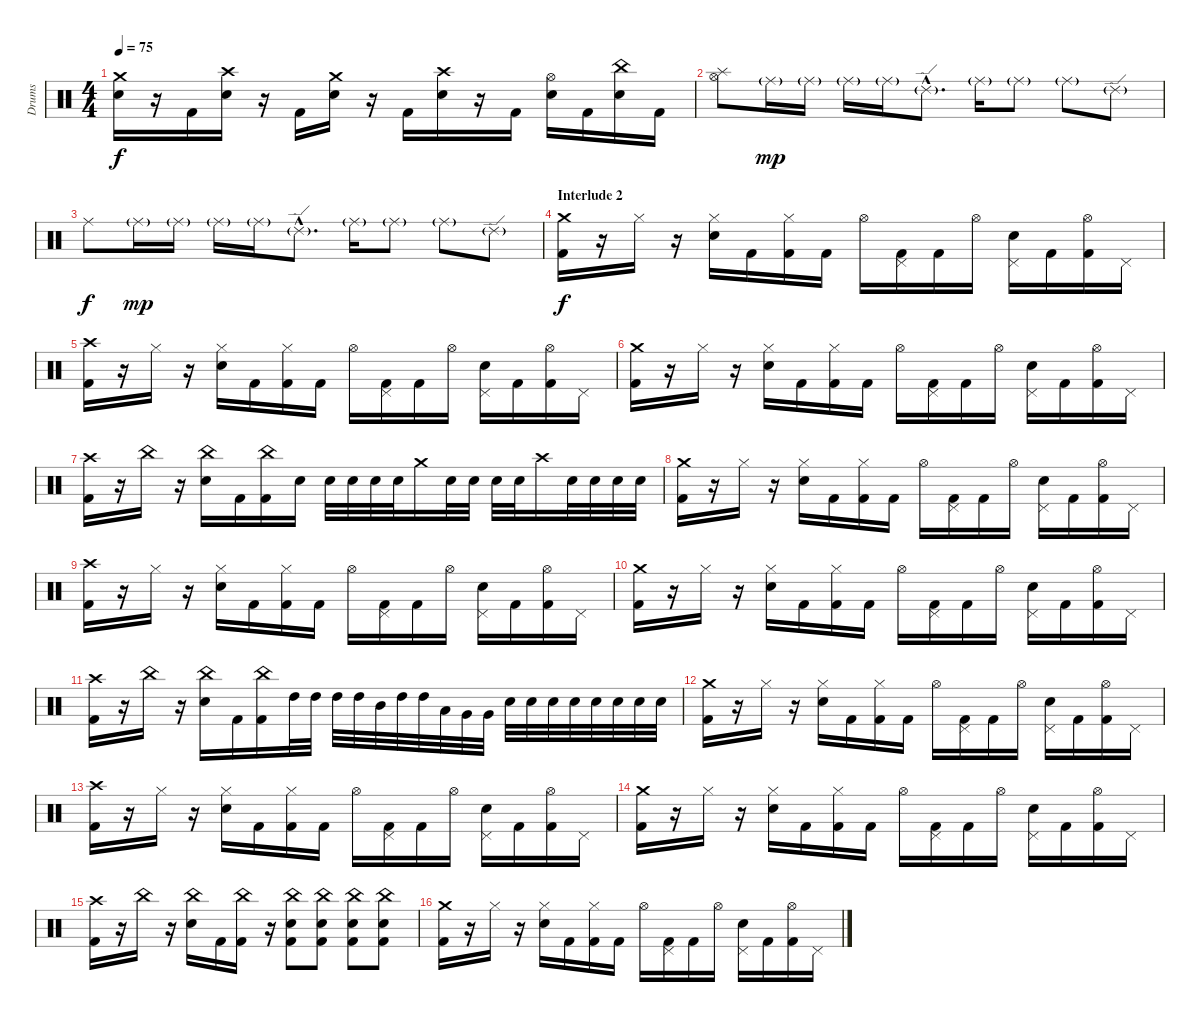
\track ("Drums" "Drums") {instrument percussion}
\staff {score}
\articulation defaults
\ts (4 4)
\tempo 75
\clef neutral
\ks c
("Crash medium (hit)" "Snare (hit) 2").16{dy f} r.16 "Kick (hit) 2".16 ("Crash high (hit)" "Snare (hit) 2").16 r.16 "Kick (hit) 2".16 ("Crash medium (hit)" "Snare (hit) 2").16 r.16 "Kick (hit) 2".16 ("Crash high (hit)" "Snare (hit) 2").16 r.16 "Kick (hit) 2".16 ("Hi-Hat (open)" "Snare (hit) 2").16 "Kick (hit) 2".16 ("China (hit)" "Snare (hit) 2").16 "Kick (hit) 2".16 |
("Splash (hit)" "Hi-Hat (open)").8 "Ride (middle)"{g}.16{dy mp} "Ride (middle)"{g}.16 "Ride (middle)"{g}.16 "Ride (middle)"{g}.16 "Ride (edge) 2"{g hac}.8{d} "Ride (middle)"{g}.16 "Ride (middle)"{g}.8 "Ride (middle)"{g}.8 "Ride (edge) 2"{g}.8 |
"Ride (middle)".8{dy f} "Ride (middle)"{g}.16{dy mp} "Ride (middle)"{g}.16 "Ride (middle)"{g}.16 "Ride (middle)"{g}.16 "Ride (edge) 2"{g hac}.8{d} "Ride (middle)"{g}.16 "Ride (middle)"{g}.8 "Ride (middle)"{g}.8 "Ride (edge) 2"{g}.8 |
\section ("" "Interlude 2")
("Crash medium (hit)" "Kick (hit) 2").16{dy f} r.16 "Hi-Hat (closed)".16 r.16 ("Hi-Hat (closed)" "Snare (hit) 2").16 "Kick (hit) 2".16 ("Hi-Hat (closed)" "Kick (hit) 2").16 "Kick (hit) 2".16 "Hi-Hat (open)".16 ("Pedal Hi-Hat (hit)" "Kick (hit) 2").16 "Kick (hit) 2".16 "Hi-Hat (open)".16 ("Pedal Hi-Hat (hit)" "Snare (hit) 2").16 "Kick (hit) 2".16 ("Hi-Hat (open)" "Kick (hit) 2").16 "Pedal Hi-Hat (hit)".16 |
("Crash high (hit)" "Kick (hit) 2").16 r.16 "Hi-Hat (closed)".16 r.16 ("Hi-Hat (closed)" "Snare (hit) 2").16 "Kick (hit) 2".16 ("Hi-Hat (closed)" "Kick (hit) 2").16 "Kick (hit) 2".16 "Hi-Hat (open)".16 ("Pedal Hi-Hat (hit)" "Kick (hit) 2").16 "Kick (hit) 2".16 "Hi-Hat (open)".16 ("Pedal Hi-Hat (hit)" "Snare (hit) 2").16 "Kick (hit) 2".16 ("Hi-Hat (open)" "Kick (hit) 2").16 "Pedal Hi-Hat (hit)".16 |
("Crash medium (hit)" "Kick (hit) 2").16 r.16 "Hi-Hat (closed)".16 r.16 ("Hi-Hat (closed)" "Snare (hit) 2").16 "Kick (hit) 2".16 ("Hi-Hat (closed)" "Kick (hit) 2").16 "Kick (hit) 2".16 "Hi-Hat (open)".16 ("Pedal Hi-Hat (hit)" "Kick (hit) 2").16 "Kick (hit) 2".16 "Hi-Hat (open)".16 ("Pedal Hi-Hat (hit)" "Snare (hit) 2").16 "Kick (hit) 2".16 ("Hi-Hat (open)" "Kick (hit) 2").16 "Pedal Hi-Hat (hit)".16 |
("Crash high (hit)" "Kick (hit) 2").16 r.16 "China (hit)".16 r.16 ("China (hit)" "Snare (hit) 2").16 "Kick (hit) 2".16 ("China (hit)" "Kick (hit) 2").16 "Snare (hit) 2".16 "Snare (hit) 2".32 "Snare (hit) 2".32 "Snare (hit) 2".32 "Snare (hit) 2".32 "Crash medium (hit)".16 "Snare (hit) 2".32 "Snare (hit) 2".32 "Snare (hit) 2".32 "Snare (hit) 2".32 "Crash high (hit)".16 "Snare (hit) 2".32 "Snare (hit) 2".32 "Snare (hit) 2".32 "Snare (hit) 2".32 |
("Crash medium (hit)" "Kick (hit) 2").16 r.16 "Hi-Hat (closed)".16 r.16 ("Hi-Hat (closed)" "Snare (hit) 2").16 "Kick (hit) 2".16 ("Hi-Hat (closed)" "Kick (hit) 2").16 "Kick (hit) 2".16 "Hi-Hat (open)".16 ("Pedal Hi-Hat (hit)" "Kick (hit) 2").16 "Kick (hit) 2".16 "Hi-Hat (open)".16 ("Pedal Hi-Hat (hit)" "Snare (hit) 2").16 "Kick (hit) 2".16 ("Hi-Hat (open)" "Kick (hit) 2").16 "Pedal Hi-Hat (hit)".16 |
("Crash high (hit)" "Kick (hit) 2").16 r.16 "Hi-Hat (closed)".16 r.16 ("Hi-Hat (closed)" "Snare (hit) 2").16 "Kick (hit) 2".16 ("Hi-Hat (closed)" "Kick (hit) 2").16 "Kick (hit) 2".16 "Hi-Hat (open)".16 ("Pedal Hi-Hat (hit)" "Kick (hit) 2").16 "Kick (hit) 2".16 "Hi-Hat (open)".16 ("Pedal Hi-Hat (hit)" "Snare (hit) 2").16 "Kick (hit) 2".16 ("Hi-Hat (open)" "Kick (hit) 2").16 "Pedal Hi-Hat (hit)".16 |
("Crash medium (hit)" "Kick (hit) 2").16 r.16 "Hi-Hat (closed)".16 r.16 ("Hi-Hat (closed)" "Snare (hit) 2").16 "Kick (hit) 2".16 ("Hi-Hat (closed)" "Kick (hit) 2").16 "Kick (hit) 2".16 "Hi-Hat (open)".16 ("Pedal Hi-Hat (hit)" "Kick (hit) 2").16 "Kick (hit) 2".16 "Hi-Hat (open)".16 ("Pedal Hi-Hat (hit)" "Snare (hit) 2").16 "Kick (hit) 2".16 ("Hi-Hat (open)" "Kick (hit) 2").16 "Pedal Hi-Hat (hit)".16 |
("Crash high (hit)" "Kick (hit) 2").16 r.16 "China (hit)".16 r.16 ("China (hit)" "Snare (hit) 2").16 "Kick (hit) 2".16 ("China (hit)" "Kick (hit) 2").16 "High Tom (hit)".32 "High Tom (hit)".32 "High Tom (hit)".32 "High Tom (hit)".32 "Mid Tom (hit)".32 "High Tom (hit)".32 "High Tom (hit)".32 "Low Tom (hit)".32 "Very Low Tom (hit)".32 "Very Low Tom (hit)".32 "Snare (hit) 2".32 "Snare (hit) 2".32 "Snare (hit) 2".32 "Snare (hit) 2".32 "Snare (hit) 2".32 "Snare (hit) 2".32 "Snare (hit) 2".32 "Snare (hit) 2".32 |
("Crash medium (hit)" "Kick (hit) 2").16 r.16 "Hi-Hat (closed)".16 r.16 ("Hi-Hat (closed)" "Snare (hit) 2").16 "Kick (hit) 2".16 ("Hi-Hat (closed)" "Kick (hit) 2").16 "Kick (hit) 2".16 "Hi-Hat (open)".16 ("Pedal Hi-Hat (hit)" "Kick (hit) 2").16 "Kick (hit) 2".16 "Hi-Hat (open)".16 ("Pedal Hi-Hat (hit)" "Snare (hit) 2").16 "Kick (hit) 2".16 ("Hi-Hat (open)" "Kick (hit) 2").16 "Pedal Hi-Hat (hit)".16 |
("Crash high (hit)" "Kick (hit) 2").16 r.16 "Hi-Hat (closed)".16 r.16 ("Hi-Hat (closed)" "Snare (hit) 2").16 "Kick (hit) 2".16 ("Hi-Hat (closed)" "Kick (hit) 2").16 "Kick (hit) 2".16 "Hi-Hat (open)".16 ("Pedal Hi-Hat (hit)" "Kick (hit) 2").16 "Kick (hit) 2".16 "Hi-Hat (open)".16 ("Pedal Hi-Hat (hit)" "Snare (hit) 2").16 "Kick (hit) 2".16 ("Hi-Hat (open)" "Kick (hit) 2").16 "Pedal Hi-Hat (hit)".16 |
("Crash medium (hit)" "Kick (hit) 2").16 r.16 "Hi-Hat (closed)".16 r.16 ("Hi-Hat (closed)" "Snare (hit) 2").16 "Kick (hit) 2".16 ("Hi-Hat (closed)" "Kick (hit) 2").16 "Kick (hit) 2".16 "Hi-Hat (open)".16 ("Pedal Hi-Hat (hit)" "Kick (hit) 2").16 "Kick (hit) 2".16 "Hi-Hat (open)".16 ("Pedal Hi-Hat (hit)" "Snare (hit) 2").16 "Kick (hit) 2".16 ("Hi-Hat (open)" "Kick (hit) 2").16 "Pedal Hi-Hat (hit)".16 |
("Crash high (hit)" "Kick (hit) 2").16 r.16 "China (hit)".16 r.16 ("China (hit)" "Snare (hit) 2").16 "Kick (hit) 2".16 ("China (hit)" "Kick (hit) 2").16 r.16 ("China (hit)" "Snare (hit) 2" "Kick (hit) 2").8 ("China (hit)" "Snare (hit) 2" "Kick (hit) 2").8 ("China (hit)" "Snare (hit) 2" "Kick (hit) 2").8 ("China (hit)" "Snare (hit) 2" "Kick (hit) 2").8 |
("Crash medium (hit)" "Kick (hit) 2").16 r.16 "Hi-Hat (closed)".16 r.16 ("Hi-Hat (closed)" "Snare (hit) 2").16 "Kick (hit) 2".16 ("Hi-Hat (closed)" "Kick (hit) 2").16 "Kick (hit) 2".16 "Hi-Hat (open)".16 ("Pedal Hi-Hat (hit)" "Kick (hit) 2").16 "Kick (hit) 2".16 "Hi-Hat (open)".16 ("Pedal Hi-Hat (hit)" "Snare (hit) 2").16 "Kick (hit) 2".16 ("Hi-Hat (open)" "Kick (hit) 2").16 "Pedal Hi-Hat (hit)".16
